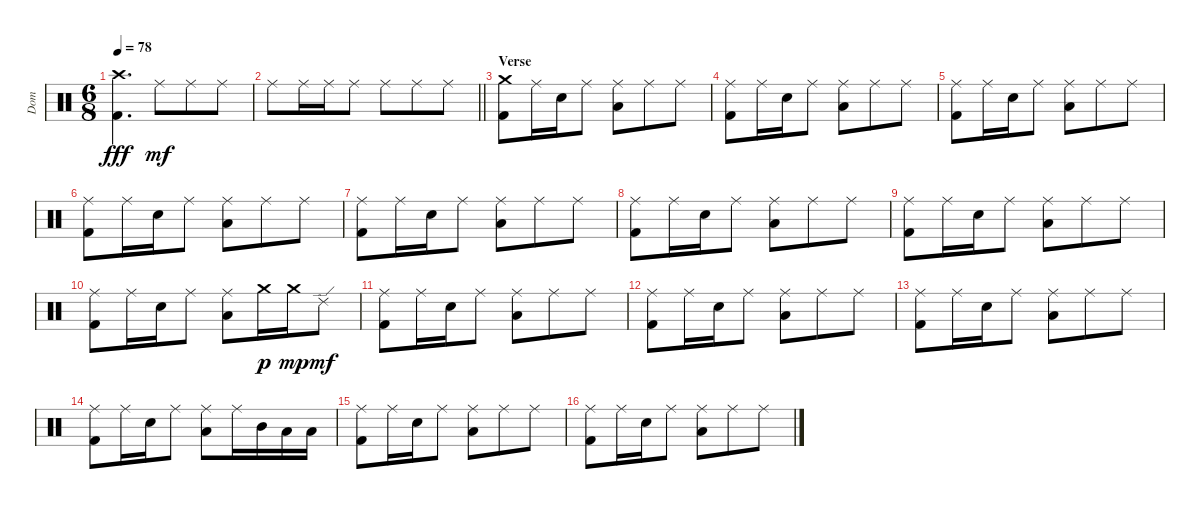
\track ("Dom" "Dom") {instrument percussion}
\staff {score}
\articulation defaults
\ts (6 8)
\tempo 78
\clef neutral
\ks c
("Crash high (hit)" "Kick (hit) 2").4{d dy fff} "Ride (middle)".8{dy mf} "Ride (middle)".8 "Ride (middle)".8 |
\barLineRight lightlight "Ride (middle)".8 "Ride (middle)".16 "Ride (middle)".16 "Ride (middle)".8 "Ride (middle)".8 "Ride (middle)".8 "Ride (middle)".8
|
\section ("" "Verse")
("Crash medium (hit)" "Kick (hit) 2").8 "Ride (middle)".16 "Electric Snare (hit)".16 "Ride (middle)".8 ("Ride (middle)" "Low Tom (hit)").8 "Ride (middle)".8 "Ride (middle)".8 |
("Ride (middle)" "Kick (hit) 2").8 "Ride (middle)".16 "Electric Snare (hit)".16 "Ride (middle)".8 ("Ride (middle)" "Low Tom (hit)").8 "Ride (middle)".8 "Ride (middle)".8 |
("Ride (middle)" "Kick (hit) 2").8 "Ride (middle)".16 "Electric Snare (hit)".16 "Ride (middle)".8 ("Ride (middle)" "Low Tom (hit)").8 "Ride (middle)".8 "Ride (middle)".8 |
("Ride (middle)" "Kick (hit) 2").8 "Ride (middle)".16 "Electric Snare (hit)".16 "Ride (middle)".8 ("Ride (middle)" "Low Tom (hit)").8 "Ride (middle)".8 "Ride (middle)".8 |
("Ride (middle)" "Kick (hit) 2").8 "Ride (middle)".16 "Electric Snare (hit)".16 "Ride (middle)".8 ("Ride (middle)" "Low Tom (hit)").8 "Ride (middle)".8 "Ride (middle)".8 |
("Ride (middle)" "Kick (hit) 2").8 "Ride (middle)".16 "Electric Snare (hit)".16 "Ride (middle)".8 ("Ride (middle)" "Low Tom (hit)").8 "Ride (middle)".8 "Ride (middle)".8 |
("Ride (middle)" "Kick (hit) 2").8 "Ride (middle)".16 "Electric Snare (hit)".16 "Ride (middle)".8 ("Ride (middle)" "Low Tom (hit)").8 "Ride (middle)".8 "Ride (middle)".8 |
("Ride (middle)" "Kick (hit) 2").8 "Ride (middle)".16 "Electric Snare (hit)".16 "Ride (middle)".8 ("Ride (middle)" "Low Tom (hit)").8 "Crash medium (hit)".16{dy p} "Crash medium (hit)".16{dy mp} "Ride (edge) 2".8{dy mf} |
("Ride (middle)" "Kick (hit) 2").8 "Ride (middle)".16 "Electric Snare (hit)".16 "Ride (middle)".8 ("Ride (middle)" "Low Tom (hit)").8 "Ride (middle)".8 "Ride (middle)".8 |
("Ride (middle)" "Kick (hit) 2").8 "Ride (middle)".16 "Electric Snare (hit)".16 "Ride (middle)".8 ("Ride (middle)" "Low Tom (hit)").8 "Ride (middle)".8 "Ride (middle)".8 |
("Ride (middle)" "Kick (hit) 2").8 "Ride (middle)".16 "Electric Snare (hit)".16 "Ride (middle)".8 ("Ride (middle)" "Low Tom (hit)").8 "Ride (middle)".8 "Ride (middle)".8 |
("Ride (middle)" "Kick (hit) 2").8 "Ride (middle)".16 "Electric Snare (hit)".16 "Ride (middle)".8 ("Ride (middle)" "Low Tom (hit)").8 "Ride (middle)".16 "Mid Tom (hit)".16 "Low Tom (hit)".16 "Low Floor Tom (hit)".16 |
("Ride (middle)" "Kick (hit) 2").8 "Ride (middle)".16 "Electric Snare (hit)".16 "Ride (middle)".8 ("Ride (middle)" "Low Tom (hit)").8 "Ride (middle)".8 "Ride (middle)".8 |
("Ride (middle)" "Kick (hit) 2").8 "Ride (middle)".16 "Electric Snare (hit)".16 "Ride (middle)".8 ("Ride (middle)" "Low Tom (hit)").8 "Ride (middle)".8 "Ride (middle)".8
